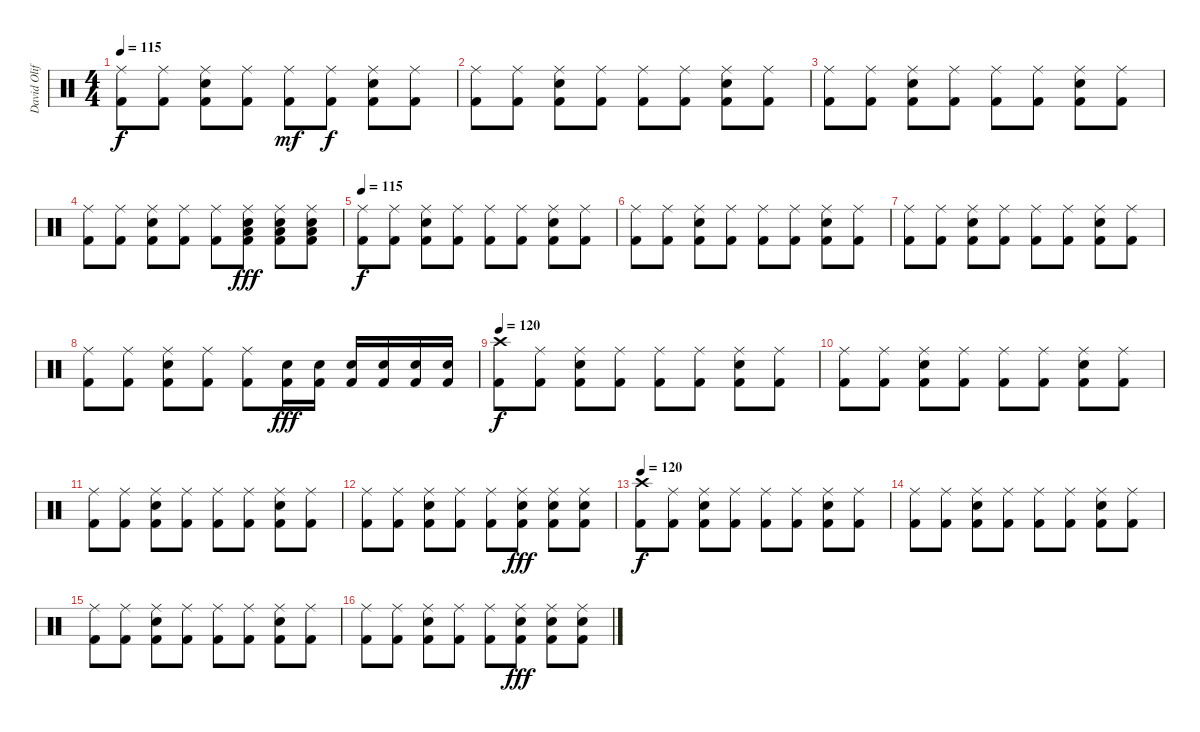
\track ("David Oliffe" "David Olif") {instrument percussion}
\staff {score}
\articulation defaults
\ts (4 4)
\tempo 115
\clef neutral
\ks c
("Ride (middle)" "Kick (hit) 2").8{dy f} ("Ride (middle)" "Kick (hit) 2").8 ("Ride (middle)" "Electric Snare (hit)" "Kick (hit) 2").8 ("Ride (middle)" "Kick (hit) 2").8 ("Ride (middle)" "Kick (hit) 2").8{dy mf} ("Ride (middle)" "Kick (hit) 2").8{dy f} ("Ride (middle)" "Electric Snare (hit)" "Kick (hit) 2").8 ("Ride (middle)" "Kick (hit) 2").8 |
("Ride (middle)" "Kick (hit) 2").8 ("Ride (middle)" "Kick (hit) 2").8 ("Ride (middle)" "Electric Snare (hit)" "Kick (hit) 2").8 ("Ride (middle)" "Kick (hit) 2").8 ("Ride (middle)" "Kick (hit) 2").8 ("Ride (middle)" "Kick (hit) 2").8 ("Ride (middle)" "Electric Snare (hit)" "Kick (hit) 2").8 ("Ride (middle)" "Kick (hit) 2").8 |
("Ride (middle)" "Kick (hit) 2").8 ("Ride (middle)" "Kick (hit) 2").8 ("Ride (middle)" "Electric Snare (hit)" "Kick (hit) 2").8 ("Ride (middle)" "Kick (hit) 2").8 ("Ride (middle)" "Kick (hit) 2").8 ("Ride (middle)" "Kick (hit) 2").8 ("Ride (middle)" "Electric Snare (hit)" "Kick (hit) 2").8 ("Ride (middle)" "Kick (hit) 2").8 |
("Ride (middle)" "Kick (hit) 2").8 ("Ride (middle)" "Kick (hit) 2").8 ("Ride (middle)" "Electric Snare (hit)" "Kick (hit) 2").8 ("Ride (middle)" "Kick (hit) 2").8 ("Ride (middle)" "Kick (hit) 2").8 ("Ride (middle)" "Electric Snare (hit)" "Low Tom (hit)" "Kick (hit) 2").8{dy fff} ("Ride (middle)" "Electric Snare (hit)" "Low Tom (hit)" "Kick (hit) 2").8 ("Ride (middle)" "Electric Snare (hit)" "Low Tom (hit)" "Kick (hit) 2").8 |
\tempo 115
("Ride (middle)" "Kick (hit) 2").8{dy f} ("Ride (middle)" "Kick (hit) 2").8 ("Ride (middle)" "Electric Snare (hit)" "Kick (hit) 2").8 ("Ride (middle)" "Kick (hit) 2").8 ("Ride (middle)" "Kick (hit) 2").8 ("Ride (middle)" "Kick (hit) 2").8 ("Ride (middle)" "Electric Snare (hit)" "Kick (hit) 2").8 ("Ride (middle)" "Kick (hit) 2").8 |
("Ride (middle)" "Kick (hit) 2").8 ("Ride (middle)" "Kick (hit) 2").8 ("Ride (middle)" "Electric Snare (hit)" "Kick (hit) 2").8 ("Ride (middle)" "Kick (hit) 2").8 ("Ride (middle)" "Kick (hit) 2").8 ("Ride (middle)" "Kick (hit) 2").8 ("Ride (middle)" "Electric Snare (hit)" "Kick (hit) 2").8 ("Ride (middle)" "Kick (hit) 2").8 |
("Ride (middle)" "Kick (hit) 2").8 ("Ride (middle)" "Kick (hit) 2").8 ("Ride (middle)" "Electric Snare (hit)" "Kick (hit) 2").8 ("Ride (middle)" "Kick (hit) 2").8 ("Ride (middle)" "Kick (hit) 2").8 ("Ride (middle)" "Kick (hit) 2").8 ("Ride (middle)" "Electric Snare (hit)" "Kick (hit) 2").8 ("Ride (middle)" "Kick (hit) 2").8 |
("Ride (middle)" "Kick (hit) 2").8 ("Ride (middle)" "Kick (hit) 2").8 ("Ride (middle)" "Electric Snare (hit)" "Kick (hit) 2").8 ("Ride (middle)" "Kick (hit) 2").8 ("Ride (middle)" "Kick (hit) 2").8 ("Electric Snare (hit)" "Kick (hit) 2").16{dy fff} ("Electric Snare (hit)" "Kick (hit) 2").16 ("Electric Snare (hit)" "Kick (hit) 2").16 ("Electric Snare (hit)" "Kick (hit) 2").16 ("Electric Snare (hit)" "Kick (hit) 2").16 ("Electric Snare (hit)" "Kick (hit) 2").16 |
\tempo 120
("Crash high (hit)" "Kick (hit) 2").8{dy f} ("Ride (middle)" "Kick (hit) 2").8 ("Ride (middle)" "Electric Snare (hit)" "Kick (hit) 2").8 ("Ride (middle)" "Kick (hit) 2").8 ("Ride (middle)" "Kick (hit) 2").8 ("Ride (middle)" "Kick (hit) 2").8 ("Ride (middle)" "Electric Snare (hit)" "Kick (hit) 2").8 ("Ride (middle)" "Kick (hit) 2").8 |
("Ride (middle)" "Kick (hit) 2").8 ("Ride (middle)" "Kick (hit) 2").8 ("Ride (middle)" "Electric Snare (hit)" "Kick (hit) 2").8 ("Ride (middle)" "Kick (hit) 2").8 ("Ride (middle)" "Kick (hit) 2").8 ("Ride (middle)" "Kick (hit) 2").8 ("Ride (middle)" "Electric Snare (hit)" "Kick (hit) 2").8 ("Ride (middle)" "Kick (hit) 2").8 |
("Ride (middle)" "Kick (hit) 2").8 ("Ride (middle)" "Kick (hit) 2").8 ("Ride (middle)" "Electric Snare (hit)" "Kick (hit) 2").8 ("Ride (middle)" "Kick (hit) 2").8 ("Ride (middle)" "Kick (hit) 2").8 ("Ride (middle)" "Kick (hit) 2").8 ("Ride (middle)" "Electric Snare (hit)" "Kick (hit) 2").8 ("Ride (middle)" "Kick (hit) 2").8 |
("Ride (middle)" "Kick (hit) 2").8 ("Ride (middle)" "Kick (hit) 2").8 ("Ride (middle)" "Electric Snare (hit)" "Kick (hit) 2").8 ("Ride (middle)" "Kick (hit) 2").8 ("Ride (middle)" "Kick (hit) 2").8 ("Ride (middle)" "Electric Snare (hit)" "Kick (hit) 2").8{dy fff} ("Ride (middle)" "Electric Snare (hit)" "Kick (hit) 2").8 ("Ride (middle)" "Electric Snare (hit)" "Kick (hit) 2").8 |
\tempo 120
("Crash high (hit)" "Kick (hit) 2").8{dy f} ("Ride (middle)" "Kick (hit) 2").8 ("Ride (middle)" "Electric Snare (hit)" "Kick (hit) 2").8 ("Ride (middle)" "Kick (hit) 2").8 ("Ride (middle)" "Kick (hit) 2").8 ("Ride (middle)" "Kick (hit) 2").8 ("Ride (middle)" "Electric Snare (hit)" "Kick (hit) 2").8 ("Ride (middle)" "Kick (hit) 2").8 |
("Ride (middle)" "Kick (hit) 2").8 ("Ride (middle)" "Kick (hit) 2").8 ("Ride (middle)" "Electric Snare (hit)" "Kick (hit) 2").8 ("Ride (middle)" "Kick (hit) 2").8 ("Ride (middle)" "Kick (hit) 2").8 ("Ride (middle)" "Kick (hit) 2").8 ("Ride (middle)" "Electric Snare (hit)" "Kick (hit) 2").8 ("Ride (middle)" "Kick (hit) 2").8 |
("Ride (middle)" "Kick (hit) 2").8 ("Ride (middle)" "Kick (hit) 2").8 ("Ride (middle)" "Electric Snare (hit)" "Kick (hit) 2").8 ("Ride (middle)" "Kick (hit) 2").8 ("Ride (middle)" "Kick (hit) 2").8 ("Ride (middle)" "Kick (hit) 2").8 ("Ride (middle)" "Electric Snare (hit)" "Kick (hit) 2").8 ("Ride (middle)" "Kick (hit) 2").8 |
("Ride (middle)" "Kick (hit) 2").8 ("Ride (middle)" "Kick (hit) 2").8 ("Ride (middle)" "Electric Snare (hit)" "Kick (hit) 2").8 ("Ride (middle)" "Kick (hit) 2").8 ("Ride (middle)" "Kick (hit) 2").8 ("Ride (middle)" "Electric Snare (hit)" "Kick (hit) 2").8{dy fff} ("Ride (middle)" "Electric Snare (hit)" "Kick (hit) 2").8 ("Ride (middle)" "Electric Snare (hit)" "Kick (hit) 2").8
